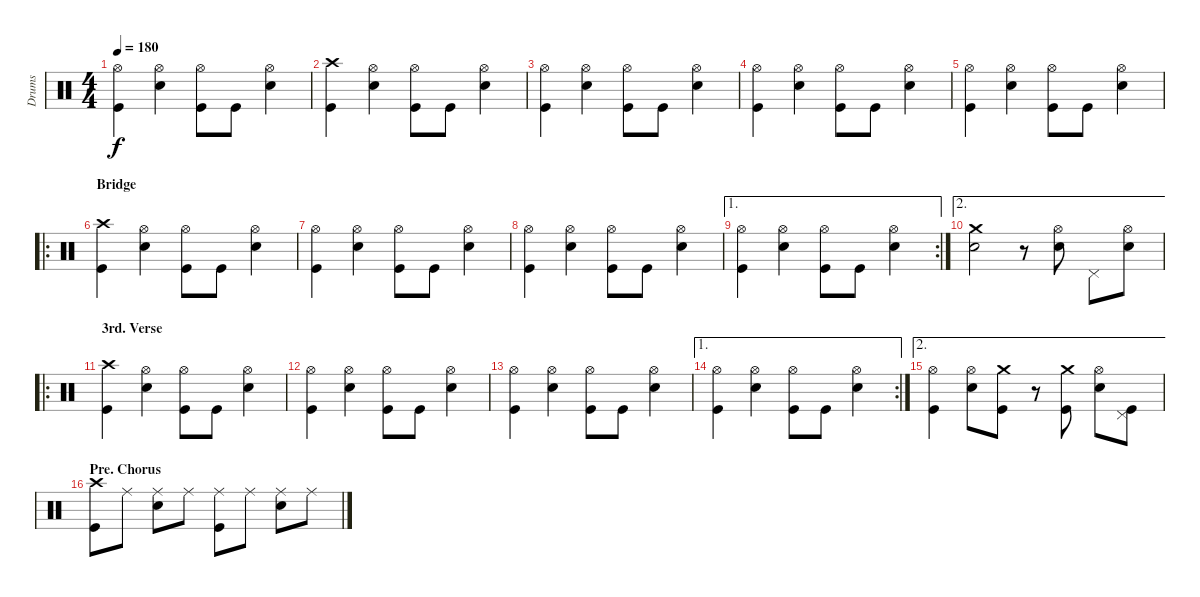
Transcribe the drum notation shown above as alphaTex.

\track ("Drums" "Drums") {instrument percussion}
\staff {score}
\articulation defaults
\ts (4 4)
\tempo 180
\clef neutral
\ks c
("Hi-Hat (open)" "Kick (hit)").4{dy f} ("Hi-Hat (open)" "Snare (hit) 2").4 ("Hi-Hat (open)" "Kick (hit)").8 "Kick (hit)".8 ("Hi-Hat (open)" "Snare (hit) 2").4 |
("Crash high (hit)" "Kick (hit)").4 ("Hi-Hat (open)" "Snare (hit) 2").4 ("Hi-Hat (open)" "Kick (hit)").8 "Kick (hit)".8 ("Hi-Hat (open)" "Snare (hit) 2").4 |
("Hi-Hat (open)" "Kick (hit)").4 ("Hi-Hat (open)" "Snare (hit) 2").4 ("Hi-Hat (open)" "Kick (hit)").8 "Kick (hit)".8 ("Hi-Hat (open)" "Snare (hit) 2").4 |
("Hi-Hat (open)" "Kick (hit)").4 ("Hi-Hat (open)" "Snare (hit) 2").4 ("Hi-Hat (open)" "Kick (hit)").8 "Kick (hit)".8 ("Hi-Hat (open)" "Snare (hit) 2").4 |
("Hi-Hat (open)" "Kick (hit)").4 ("Hi-Hat (open)" "Snare (hit) 2").4 ("Hi-Hat (open)" "Kick (hit)").8 "Kick (hit)".8 ("Hi-Hat (open)" "Snare (hit) 2").4 |
\ro
\section ("" "Bridge")
("Crash high (hit)" "Kick (hit)").4 ("Hi-Hat (open)" "Snare (hit) 2").4 ("Hi-Hat (open)" "Kick (hit)").8 "Kick (hit)".8 ("Hi-Hat (open)" "Snare (hit) 2").4 |
("Hi-Hat (open)" "Kick (hit)").4 ("Hi-Hat (open)" "Snare (hit) 2").4 ("Hi-Hat (open)" "Kick (hit)").8 "Kick (hit)".8 ("Hi-Hat (open)" "Snare (hit) 2").4 |
("Hi-Hat (open)" "Kick (hit)").4 ("Hi-Hat (open)" "Snare (hit) 2").4 ("Hi-Hat (open)" "Kick (hit)").8 "Kick (hit)".8 ("Hi-Hat (open)" "Snare (hit) 2").4 |
\ae 1
\rc 2
("Hi-Hat (open)" "Kick (hit)").4 ("Hi-Hat (open)" "Snare (hit) 2").4 ("Hi-Hat (open)" "Kick (hit)").8 "Kick (hit)".8 ("Hi-Hat (open)" "Snare (hit) 2").4 |
\ae 2
("Crash medium (hit)" "Snare (hit) 2").2 r.8 ("Hi-Hat (open)" "Snare (hit) 2").8 "Pedal Hi-Hat (hit)".8 ("Hi-Hat (open)" "Snare (hit) 2").8 |
\ro
\section ("" "3rd. Verse")
("Crash high (hit)" "Kick (hit)").4 ("Hi-Hat (open)" "Snare (hit) 2").4 ("Hi-Hat (open)" "Kick (hit)").8 "Kick (hit)".8 ("Hi-Hat (open)" "Snare (hit) 2").4 |
("Hi-Hat (open)" "Kick (hit)").4 ("Hi-Hat (open)" "Snare (hit) 2").4 ("Hi-Hat (open)" "Kick (hit)").8 "Kick (hit)".8 ("Hi-Hat (open)" "Snare (hit) 2").4 |
("Hi-Hat (open)" "Kick (hit)").4 ("Hi-Hat (open)" "Snare (hit) 2").4 ("Hi-Hat (open)" "Kick (hit)").8 "Kick (hit)".8 ("Hi-Hat (open)" "Snare (hit) 2").4 |
\ae 1
\rc 2
("Hi-Hat (open)" "Kick (hit)").4 ("Hi-Hat (open)" "Snare (hit) 2").4 ("Hi-Hat (open)" "Kick (hit)").8 "Kick (hit)".8 ("Hi-Hat (open)" "Snare (hit) 2").4 |
\ae 2
("Hi-Hat (open)" "Kick (hit)").4 ("Hi-Hat (open)" "Snare (hit) 2").8 ("Crash medium (hit)" "Kick (hit)").8 r.8 ("Crash medium (hit)" "Kick (hit)").8 ("Hi-Hat (open)" "Snare (hit) 2").8 ("Pedal Hi-Hat (hit)" "Kick (hit)").8 |
\section ("" "Pre. Chorus")
("Crash high (hit)" "Kick (hit)").8 "Ride (middle)".8 ("Ride (middle)" "Snare (hit) 2").8 "Ride (middle)".8 ("Ride (middle)" "Kick (hit)").8 "Ride (middle)".8 ("Ride (middle)" "Snare (hit) 2").8 "Ride (middle)".8
